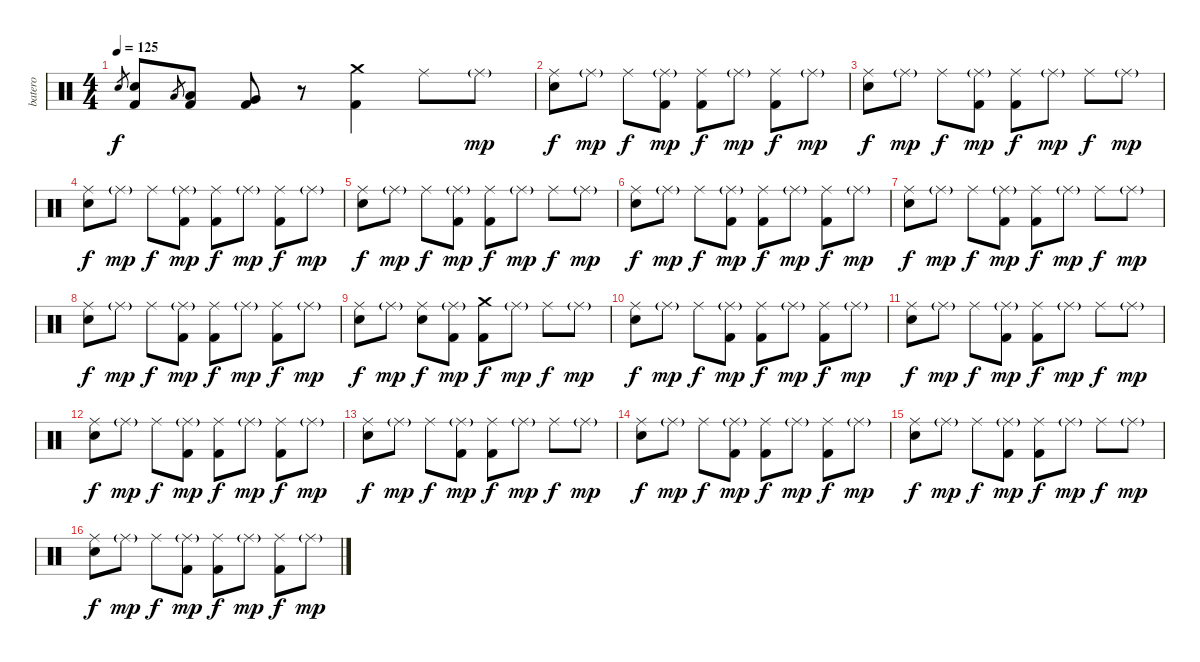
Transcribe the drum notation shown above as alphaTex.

\track ("batero" "batero") {instrument percussion}
\staff {score}
\articulation defaults
\ts (4 4)
\tempo 125
\clef neutral
\ks c "Snare (hit) 2".8{gr dy f}
("Snare (hit) 2" "Kick (hit) 2").8 "Low Tom (hit)".8{gr} ("Low Tom (hit)" "Kick (hit) 2").8 ("Very Low Tom (hit)" "Kick (hit) 2").8 r.8 ("Crash medium (hit)" "Kick (hit) 2").4 "Ride (middle)".8 "Ride (middle)"{g}.8{dy mp} |
("Ride (middle)" "Snare (hit) 2").8{dy f} "Ride (middle)"{g}.8{dy mp} "Ride (middle)".8{dy f} ("Ride (middle)"{g} "Kick (hit) 2").8{dy mp} ("Ride (middle)" "Kick (hit) 2").8{dy f} "Ride (middle)"{g}.8{dy mp} ("Ride (middle)" "Kick (hit) 2").8{dy f} "Ride (middle)"{g}.8{dy mp} |
("Ride (middle)" "Snare (hit) 2").8{dy f} "Ride (middle)"{g}.8{dy mp} "Ride (middle)".8{dy f} ("Ride (middle)"{g} "Kick (hit) 2").8{dy mp} ("Ride (middle)" "Kick (hit) 2").8{dy f} "Ride (middle)"{g}.8{dy mp} "Ride (middle)".8{dy f} "Ride (middle)"{g}.8{dy mp} |
("Ride (middle)" "Snare (hit) 2").8{dy f} "Ride (middle)"{g}.8{dy mp} "Ride (middle)".8{dy f} ("Ride (middle)"{g} "Kick (hit) 2").8{dy mp} ("Ride (middle)" "Kick (hit) 2").8{dy f} "Ride (middle)"{g}.8{dy mp} ("Ride (middle)" "Kick (hit) 2").8{dy f} "Ride (middle)"{g}.8{dy mp} |
("Ride (middle)" "Snare (hit) 2").8{dy f} "Ride (middle)"{g}.8{dy mp} "Ride (middle)".8{dy f} ("Ride (middle)"{g} "Kick (hit) 2").8{dy mp} ("Ride (middle)" "Kick (hit) 2").8{dy f} "Ride (middle)"{g}.8{dy mp} "Ride (middle)".8{dy f} "Ride (middle)"{g}.8{dy mp} |
("Ride (middle)" "Snare (hit) 2").8{dy f} "Ride (middle)"{g}.8{dy mp} "Ride (middle)".8{dy f} ("Ride (middle)"{g} "Kick (hit) 2").8{dy mp} ("Ride (middle)" "Kick (hit) 2").8{dy f} "Ride (middle)"{g}.8{dy mp} ("Ride (middle)" "Kick (hit) 2").8{dy f} "Ride (middle)"{g}.8{dy mp} |
("Ride (middle)" "Snare (hit) 2").8{dy f} "Ride (middle)"{g}.8{dy mp} "Ride (middle)".8{dy f} ("Ride (middle)"{g} "Kick (hit) 2").8{dy mp} ("Ride (middle)" "Kick (hit) 2").8{dy f} "Ride (middle)"{g}.8{dy mp} "Ride (middle)".8{dy f} "Ride (middle)"{g}.8{dy mp} |
("Ride (middle)" "Snare (hit) 2").8{dy f} "Ride (middle)"{g}.8{dy mp} "Ride (middle)".8{dy f} ("Ride (middle)"{g} "Kick (hit) 2").8{dy mp} ("Ride (middle)" "Kick (hit) 2").8{dy f} "Ride (middle)"{g}.8{dy mp} ("Ride (middle)" "Kick (hit) 2").8{dy f} "Ride (middle)"{g}.8{dy mp} |
("Ride (middle)" "Snare (hit) 2").8{dy f} "Ride (middle)"{g}.8{dy mp} ("Ride (middle)" "Snare (hit) 2").8{dy f} ("Ride (middle)"{g} "Kick (hit) 2").8{dy mp} ("Crash medium (hit)" "Kick (hit) 2").8{dy f} "Ride (middle)"{g}.8{dy mp} "Ride (middle)".8{dy f} "Ride (middle)"{g}.8{dy mp} |
("Ride (middle)" "Snare (hit) 2").8{dy f} "Ride (middle)"{g}.8{dy mp} "Ride (middle)".8{dy f} ("Ride (middle)"{g} "Kick (hit) 2").8{dy mp} ("Ride (middle)" "Kick (hit) 2").8{dy f} "Ride (middle)"{g}.8{dy mp} ("Ride (middle)" "Kick (hit) 2").8{dy f} "Ride (middle)"{g}.8{dy mp} |
("Ride (middle)" "Snare (hit) 2").8{dy f} "Ride (middle)"{g}.8{dy mp} "Ride (middle)".8{dy f} ("Ride (middle)"{g} "Kick (hit) 2").8{dy mp} ("Ride (middle)" "Kick (hit) 2").8{dy f} "Ride (middle)"{g}.8{dy mp} "Ride (middle)".8{dy f} "Ride (middle)"{g}.8{dy mp} |
("Ride (middle)" "Snare (hit) 2").8{dy f} "Ride (middle)"{g}.8{dy mp} "Ride (middle)".8{dy f} ("Ride (middle)"{g} "Kick (hit) 2").8{dy mp} ("Ride (middle)" "Kick (hit) 2").8{dy f} "Ride (middle)"{g}.8{dy mp} ("Ride (middle)" "Kick (hit) 2").8{dy f} "Ride (middle)"{g}.8{dy mp} |
("Ride (middle)" "Snare (hit) 2").8{dy f} "Ride (middle)"{g}.8{dy mp} "Ride (middle)".8{dy f} ("Ride (middle)"{g} "Kick (hit) 2").8{dy mp} ("Ride (middle)" "Kick (hit) 2").8{dy f} "Ride (middle)"{g}.8{dy mp} "Ride (middle)".8{dy f} "Ride (middle)"{g}.8{dy mp} |
("Ride (middle)" "Snare (hit) 2").8{dy f} "Ride (middle)"{g}.8{dy mp} "Ride (middle)".8{dy f} ("Ride (middle)"{g} "Kick (hit) 2").8{dy mp} ("Ride (middle)" "Kick (hit) 2").8{dy f} "Ride (middle)"{g}.8{dy mp} ("Ride (middle)" "Kick (hit) 2").8{dy f} "Ride (middle)"{g}.8{dy mp} |
("Ride (middle)" "Snare (hit) 2").8{dy f} "Ride (middle)"{g}.8{dy mp} "Ride (middle)".8{dy f} ("Ride (middle)"{g} "Kick (hit) 2").8{dy mp} ("Ride (middle)" "Kick (hit) 2").8{dy f} "Ride (middle)"{g}.8{dy mp} "Ride (middle)".8{dy f} "Ride (middle)"{g}.8{dy mp} |
("Ride (middle)" "Snare (hit) 2").8{dy f} "Ride (middle)"{g}.8{dy mp} "Ride (middle)".8{dy f} ("Ride (middle)"{g} "Kick (hit) 2").8{dy mp} ("Ride (middle)" "Kick (hit) 2").8{dy f} "Ride (middle)"{g}.8{dy mp} ("Ride (middle)" "Kick (hit) 2").8{dy f} "Ride (middle)"{g}.8{dy mp}
